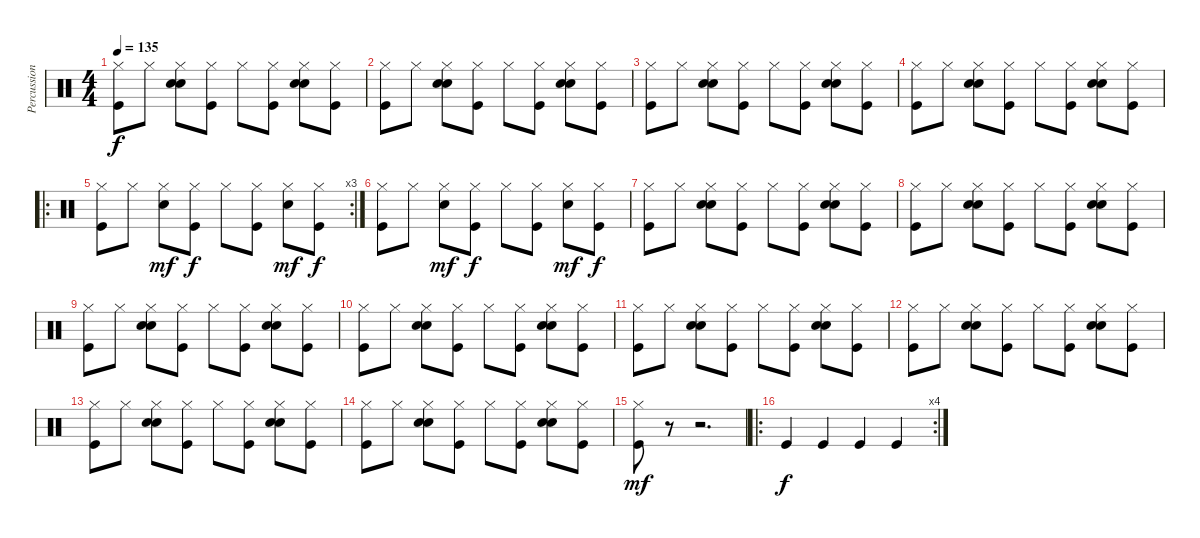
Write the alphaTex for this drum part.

\track ("Percussion" "Percussion") {instrument percussion}
\staff {score}
\articulation defaults
\ts (4 4)
\tempo 135
\clef neutral
\ks c
("Hi-Hat (closed)" "Kick (hit)").8{dy f} "Hi-Hat (closed)".8 ("Hi-Hat (closed)" "Hand Clap (hit)" "Snare (hit) 2").8 ("Hi-Hat (closed)" "Kick (hit)").8 "Hi-Hat (closed)".8 ("Hi-Hat (closed)" "Kick (hit)").8 ("Hi-Hat (closed)" "Snare (hit) 2" "Hand Clap (hit)").8 ("Hi-Hat (closed)" "Kick (hit)").8 |
("Hi-Hat (closed)" "Kick (hit)").8 "Hi-Hat (closed)".8 ("Hi-Hat (closed)" "Hand Clap (hit)" "Snare (hit) 2").8 ("Hi-Hat (closed)" "Kick (hit)").8 "Hi-Hat (closed)".8 ("Hi-Hat (closed)" "Kick (hit)").8 ("Hi-Hat (closed)" "Snare (hit) 2" "Hand Clap (hit)").8 ("Hi-Hat (closed)" "Kick (hit)").8 |
("Hi-Hat (closed)" "Kick (hit)").8 "Hi-Hat (closed)".8 ("Hi-Hat (closed)" "Hand Clap (hit)" "Snare (hit) 2").8 ("Hi-Hat (closed)" "Kick (hit)").8 "Hi-Hat (closed)".8 ("Hi-Hat (closed)" "Kick (hit)").8 ("Hi-Hat (closed)" "Snare (hit) 2" "Hand Clap (hit)").8 ("Hi-Hat (closed)" "Kick (hit)").8 |
("Hi-Hat (closed)" "Kick (hit)").8 "Hi-Hat (closed)".8 ("Hi-Hat (closed)" "Hand Clap (hit)" "Snare (hit) 2").8 ("Hi-Hat (closed)" "Kick (hit)").8 "Hi-Hat (closed)".8 ("Hi-Hat (closed)" "Kick (hit)").8 ("Hi-Hat (closed)" "Snare (hit) 2" "Hand Clap (hit)").8 ("Hi-Hat (closed)" "Kick (hit)").8 |
\ro
\rc 3
("Hi-Hat (closed)" "Kick (hit)").8 "Hi-Hat (closed)".8 ("Hi-Hat (closed)" "Snare (hit) 2").8{dy mf} ("Hi-Hat (closed)" "Kick (hit)").8{dy f} "Hi-Hat (closed)".8 ("Hi-Hat (closed)" "Kick (hit)").8 ("Hi-Hat (closed)" "Snare (hit) 2").8{dy mf} ("Hi-Hat (closed)" "Kick (hit)").8{dy f} |
("Hi-Hat (closed)" "Kick (hit)").8 "Hi-Hat (closed)".8 ("Hi-Hat (closed)" "Snare (hit) 2").8{dy mf} ("Hi-Hat (closed)" "Kick (hit)").8{dy f} "Hi-Hat (closed)".8 ("Hi-Hat (closed)" "Kick (hit)").8 ("Hi-Hat (closed)" "Snare (hit) 2").8{dy mf} ("Hi-Hat (closed)" "Kick (hit)").8{dy f} |
("Hi-Hat (closed)" "Kick (hit)").8 "Hi-Hat (closed)".8 ("Hi-Hat (closed)" "Hand Clap (hit)" "Snare (hit) 2").8 ("Hi-Hat (closed)" "Kick (hit)").8 "Hi-Hat (closed)".8 ("Hi-Hat (closed)" "Kick (hit)").8 ("Hi-Hat (closed)" "Snare (hit) 2" "Hand Clap (hit)").8 ("Hi-Hat (closed)" "Kick (hit)").8 |
("Hi-Hat (closed)" "Kick (hit)").8 "Hi-Hat (closed)".8 ("Hi-Hat (closed)" "Hand Clap (hit)" "Snare (hit) 2").8 ("Hi-Hat (closed)" "Kick (hit)").8 "Hi-Hat (closed)".8 ("Hi-Hat (closed)" "Kick (hit)").8 ("Hi-Hat (closed)" "Snare (hit) 2" "Hand Clap (hit)").8 ("Hi-Hat (closed)" "Kick (hit)").8 |
("Hi-Hat (closed)" "Kick (hit)").8 "Hi-Hat (closed)".8 ("Hi-Hat (closed)" "Hand Clap (hit)" "Snare (hit) 2").8 ("Hi-Hat (closed)" "Kick (hit)").8 "Hi-Hat (closed)".8 ("Hi-Hat (closed)" "Kick (hit)").8 ("Hi-Hat (closed)" "Snare (hit) 2" "Hand Clap (hit)").8 ("Hi-Hat (closed)" "Kick (hit)").8 |
("Hi-Hat (closed)" "Kick (hit)").8 "Hi-Hat (closed)".8 ("Hi-Hat (closed)" "Hand Clap (hit)" "Snare (hit) 2").8 ("Hi-Hat (closed)" "Kick (hit)").8 "Hi-Hat (closed)".8 ("Hi-Hat (closed)" "Kick (hit)").8 ("Hi-Hat (closed)" "Snare (hit) 2" "Hand Clap (hit)").8 ("Hi-Hat (closed)" "Kick (hit)").8 |
("Hi-Hat (closed)" "Kick (hit)").8 "Hi-Hat (closed)".8 ("Hi-Hat (closed)" "Hand Clap (hit)" "Snare (hit) 2").8 ("Hi-Hat (closed)" "Kick (hit)").8 "Hi-Hat (closed)".8 ("Hi-Hat (closed)" "Kick (hit)").8 ("Hi-Hat (closed)" "Snare (hit) 2" "Hand Clap (hit)").8 ("Hi-Hat (closed)" "Kick (hit)").8 |
("Hi-Hat (closed)" "Kick (hit)").8 "Hi-Hat (closed)".8 ("Hi-Hat (closed)" "Hand Clap (hit)" "Snare (hit) 2").8 ("Hi-Hat (closed)" "Kick (hit)").8 "Hi-Hat (closed)".8 ("Hi-Hat (closed)" "Kick (hit)").8 ("Hi-Hat (closed)" "Snare (hit) 2" "Hand Clap (hit)").8 ("Hi-Hat (closed)" "Kick (hit)").8 |
("Hi-Hat (closed)" "Kick (hit)").8 "Hi-Hat (closed)".8 ("Hi-Hat (closed)" "Hand Clap (hit)" "Snare (hit) 2").8 ("Hi-Hat (closed)" "Kick (hit)").8 "Hi-Hat (closed)".8 ("Hi-Hat (closed)" "Kick (hit)").8 ("Hi-Hat (closed)" "Snare (hit) 2" "Hand Clap (hit)").8 ("Hi-Hat (closed)" "Kick (hit)").8 |
("Hi-Hat (closed)" "Kick (hit)").8 "Hi-Hat (closed)".8 ("Hi-Hat (closed)" "Hand Clap (hit)" "Snare (hit) 2").8 ("Hi-Hat (closed)" "Kick (hit)").8 "Hi-Hat (closed)".8 ("Hi-Hat (closed)" "Kick (hit)").8 ("Hi-Hat (closed)" "Snare (hit) 2" "Hand Clap (hit)").8 ("Hi-Hat (closed)" "Kick (hit)").8 |
("Hi-Hat (closed)" "Kick (hit)").8{dy mf} r.8 r.2{d} |
\ro
\rc 4 "Kick (hit)".4{dy f} "Kick (hit)".4 "Kick (hit)".4 "Kick (hit)".4
